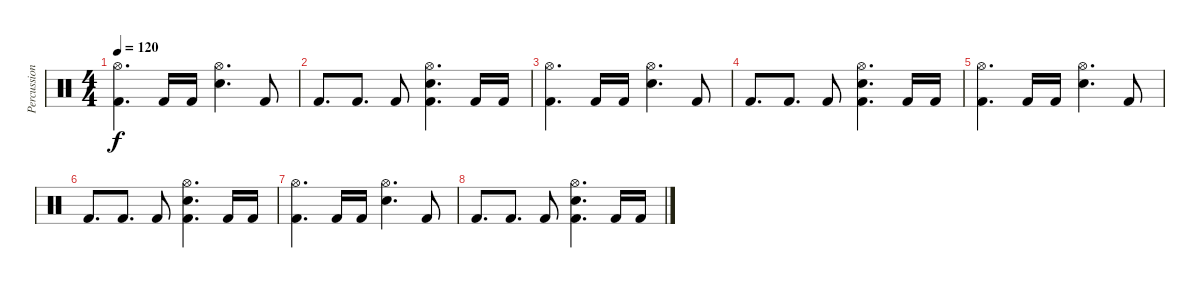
\track ("Percussions" "Percussion") {instrument percussion}
\staff {score}
\articulation defaults
\ts (4 4)
\tempo 120
\clef neutral
\ks c
("Hi-Hat (open)" "Kick (hit) 2").4{d dy f} "Kick (hit) 2".16 "Kick (hit) 2".16 ("Hi-Hat (open)" "Snare (hit) 2").4{d} "Kick (hit) 2".8 |
"Kick (hit) 2".8{d} "Kick (hit) 2".8{d} "Kick (hit) 2".8 ("Hi-Hat (open)" "Kick (hit) 2" "Snare (hit) 2").4{d} "Kick (hit) 2".16 "Kick (hit) 2".16 |
("Hi-Hat (open)" "Kick (hit) 2").4{d} "Kick (hit) 2".16 "Kick (hit) 2".16 ("Hi-Hat (open)" "Snare (hit) 2").4{d} "Kick (hit) 2".8 |
"Kick (hit) 2".8{d} "Kick (hit) 2".8{d} "Kick (hit) 2".8 ("Hi-Hat (open)" "Kick (hit) 2" "Snare (hit) 2").4{d} "Kick (hit) 2".16 "Kick (hit) 2".16 |
("Hi-Hat (open)" "Kick (hit) 2").4{d} "Kick (hit) 2".16 "Kick (hit) 2".16 ("Hi-Hat (open)" "Snare (hit) 2").4{d} "Kick (hit) 2".8 |
"Kick (hit) 2".8{d} "Kick (hit) 2".8{d} "Kick (hit) 2".8 ("Hi-Hat (open)" "Kick (hit) 2" "Snare (hit) 2").4{d} "Kick (hit) 2".16 "Kick (hit) 2".16 |
("Hi-Hat (open)" "Kick (hit) 2").4{d} "Kick (hit) 2".16 "Kick (hit) 2".16 ("Hi-Hat (open)" "Snare (hit) 2").4{d} "Kick (hit) 2".8 |
"Kick (hit) 2".8{d} "Kick (hit) 2".8{d} "Kick (hit) 2".8 ("Hi-Hat (open)" "Kick (hit) 2" "Snare (hit) 2").4{d} "Kick (hit) 2".16 "Kick (hit) 2".16
